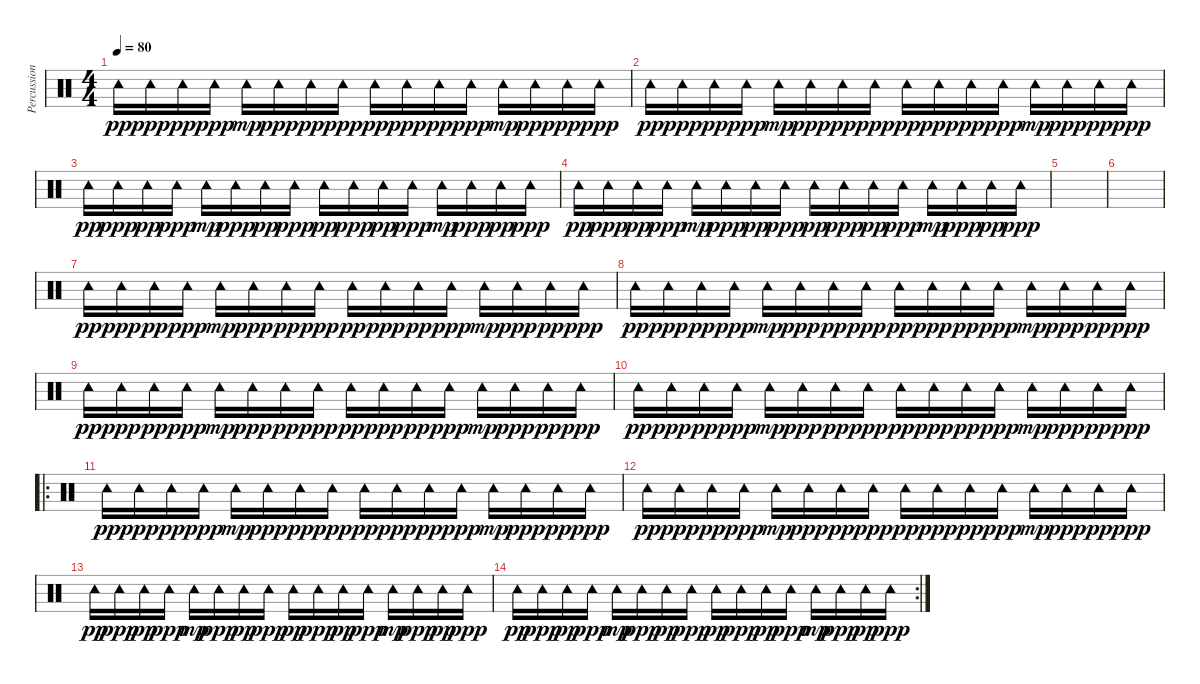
\track ("Percussion" "Percussion") {instrument percussion}
\staff {score}
\articulation defaults
\ts (4 4)
\tempo 80
\clef neutral
\ks c "Tambourine (hit)".16{dy pp} "Tambourine (hit)".16{dy ppp} "Tambourine (hit)".16{dy pp} "Tambourine (hit)".16{dy ppp} "Tambourine (hit)".16{dy mp} "Tambourine (hit)".16{dy ppp} "Tambourine (hit)".16{dy pp} "Tambourine (hit)".16{dy ppp} "Tambourine (hit)".16{dy pp} "Tambourine (hit)".16{dy ppp} "Tambourine (hit)".16{dy pp} "Tambourine (hit)".16{dy ppp} "Tambourine (hit)".16{dy mp} "Tambourine (hit)".16{dy ppp} "Tambourine (hit)".16{dy pp} "Tambourine (hit)".16{dy ppp}
|
"Tambourine (hit)".16{dy pp} "Tambourine (hit)".16{dy ppp} "Tambourine (hit)".16{dy pp} "Tambourine (hit)".16{dy ppp} "Tambourine (hit)".16{dy mp} "Tambourine (hit)".16{dy ppp} "Tambourine (hit)".16{dy pp} "Tambourine (hit)".16{dy ppp} "Tambourine (hit)".16{dy pp} "Tambourine (hit)".16{dy ppp} "Tambourine (hit)".16{dy pp} "Tambourine (hit)".16{dy ppp} "Tambourine (hit)".16{dy mp} "Tambourine (hit)".16{dy ppp} "Tambourine (hit)".16{dy pp} "Tambourine (hit)".16{dy ppp} |
"Tambourine (hit)".16{dy pp} "Tambourine (hit)".16{dy ppp} "Tambourine (hit)".16{dy pp} "Tambourine (hit)".16{dy ppp} "Tambourine (hit)".16{dy mp} "Tambourine (hit)".16{dy ppp} "Tambourine (hit)".16{dy pp} "Tambourine (hit)".16{dy ppp} "Tambourine (hit)".16{dy pp} "Tambourine (hit)".16{dy ppp} "Tambourine (hit)".16{dy pp} "Tambourine (hit)".16{dy ppp} "Tambourine (hit)".16{dy mp} "Tambourine (hit)".16{dy ppp} "Tambourine (hit)".16{dy pp} "Tambourine (hit)".16{dy ppp} |
"Tambourine (hit)".16{dy pp} "Tambourine (hit)".16{dy ppp} "Tambourine (hit)".16{dy pp} "Tambourine (hit)".16{dy ppp} "Tambourine (hit)".16{dy mp} "Tambourine (hit)".16{dy ppp} "Tambourine (hit)".16{dy pp} "Tambourine (hit)".16{dy ppp} "Tambourine (hit)".16{dy pp} "Tambourine (hit)".16{dy ppp} "Tambourine (hit)".16{dy pp} "Tambourine (hit)".16{dy ppp} "Tambourine (hit)".16{dy mp} "Tambourine (hit)".16{dy ppp} "Tambourine (hit)".16{dy pp} "Tambourine (hit)".16{dy ppp} |
|
|
"Tambourine (hit)".16{dy pp} "Tambourine (hit)".16{dy ppp} "Tambourine (hit)".16{dy pp} "Tambourine (hit)".16{dy ppp} "Tambourine (hit)".16{dy mp} "Tambourine (hit)".16{dy ppp} "Tambourine (hit)".16{dy pp} "Tambourine (hit)".16{dy ppp} "Tambourine (hit)".16{dy pp} "Tambourine (hit)".16{dy ppp} "Tambourine (hit)".16{dy pp} "Tambourine (hit)".16{dy ppp} "Tambourine (hit)".16{dy mp} "Tambourine (hit)".16{dy ppp} "Tambourine (hit)".16{dy pp} "Tambourine (hit)".16{dy ppp} |
"Tambourine (hit)".16{dy pp} "Tambourine (hit)".16{dy ppp} "Tambourine (hit)".16{dy pp} "Tambourine (hit)".16{dy ppp} "Tambourine (hit)".16{dy mp} "Tambourine (hit)".16{dy ppp} "Tambourine (hit)".16{dy pp} "Tambourine (hit)".16{dy ppp} "Tambourine (hit)".16{dy pp} "Tambourine (hit)".16{dy ppp} "Tambourine (hit)".16{dy pp} "Tambourine (hit)".16{dy ppp} "Tambourine (hit)".16{dy mp} "Tambourine (hit)".16{dy ppp} "Tambourine (hit)".16{dy pp} "Tambourine (hit)".16{dy ppp} |
"Tambourine (hit)".16{dy pp} "Tambourine (hit)".16{dy ppp} "Tambourine (hit)".16{dy pp} "Tambourine (hit)".16{dy ppp} "Tambourine (hit)".16{dy mp} "Tambourine (hit)".16{dy ppp} "Tambourine (hit)".16{dy pp} "Tambourine (hit)".16{dy ppp} "Tambourine (hit)".16{dy pp} "Tambourine (hit)".16{dy ppp} "Tambourine (hit)".16{dy pp} "Tambourine (hit)".16{dy ppp} "Tambourine (hit)".16{dy mp} "Tambourine (hit)".16{dy ppp} "Tambourine (hit)".16{dy pp} "Tambourine (hit)".16{dy ppp} |
"Tambourine (hit)".16{dy pp} "Tambourine (hit)".16{dy ppp} "Tambourine (hit)".16{dy pp} "Tambourine (hit)".16{dy ppp} "Tambourine (hit)".16{dy mp} "Tambourine (hit)".16{dy ppp} "Tambourine (hit)".16{dy pp} "Tambourine (hit)".16{dy ppp} "Tambourine (hit)".16{dy pp} "Tambourine (hit)".16{dy ppp} "Tambourine (hit)".16{dy pp} "Tambourine (hit)".16{dy ppp} "Tambourine (hit)".16{dy mp} "Tambourine (hit)".16{dy ppp} "Tambourine (hit)".16{dy pp} "Tambourine (hit)".16{dy ppp} |
\ro "Tambourine (hit)".16{dy pp} "Tambourine (hit)".16{dy ppp} "Tambourine (hit)".16{dy pp} "Tambourine (hit)".16{dy ppp} "Tambourine (hit)".16{dy mp} "Tambourine (hit)".16{dy ppp} "Tambourine (hit)".16{dy pp} "Tambourine (hit)".16{dy ppp} "Tambourine (hit)".16{dy pp} "Tambourine (hit)".16{dy ppp} "Tambourine (hit)".16{dy pp} "Tambourine (hit)".16{dy ppp} "Tambourine (hit)".16{dy mp} "Tambourine (hit)".16{dy ppp} "Tambourine (hit)".16{dy pp} "Tambourine (hit)".16{dy ppp}
|
"Tambourine (hit)".16{dy pp} "Tambourine (hit)".16{dy ppp} "Tambourine (hit)".16{dy pp} "Tambourine (hit)".16{dy ppp} "Tambourine (hit)".16{dy mp} "Tambourine (hit)".16{dy ppp} "Tambourine (hit)".16{dy pp} "Tambourine (hit)".16{dy ppp} "Tambourine (hit)".16{dy pp} "Tambourine (hit)".16{dy ppp} "Tambourine (hit)".16{dy pp} "Tambourine (hit)".16{dy ppp} "Tambourine (hit)".16{dy mp} "Tambourine (hit)".16{dy ppp} "Tambourine (hit)".16{dy pp} "Tambourine (hit)".16{dy ppp} |
"Tambourine (hit)".16{dy pp} "Tambourine (hit)".16{dy ppp} "Tambourine (hit)".16{dy pp} "Tambourine (hit)".16{dy ppp} "Tambourine (hit)".16{dy mp} "Tambourine (hit)".16{dy ppp} "Tambourine (hit)".16{dy pp} "Tambourine (hit)".16{dy ppp} "Tambourine (hit)".16{dy pp} "Tambourine (hit)".16{dy ppp} "Tambourine (hit)".16{dy pp} "Tambourine (hit)".16{dy ppp} "Tambourine (hit)".16{dy mp} "Tambourine (hit)".16{dy ppp} "Tambourine (hit)".16{dy pp} "Tambourine (hit)".16{dy ppp} |
\rc 2 "Tambourine (hit)".16{dy pp} "Tambourine (hit)".16{dy ppp} "Tambourine (hit)".16{dy pp} "Tambourine (hit)".16{dy ppp} "Tambourine (hit)".16{dy mp} "Tambourine (hit)".16{dy ppp} "Tambourine (hit)".16{dy pp} "Tambourine (hit)".16{dy ppp} "Tambourine (hit)".16{dy pp} "Tambourine (hit)".16{dy ppp} "Tambourine (hit)".16{dy pp} "Tambourine (hit)".16{dy ppp} "Tambourine (hit)".16{dy mp} "Tambourine (hit)".16{dy ppp} "Tambourine (hit)".16{dy pp} "Tambourine (hit)".16{dy ppp}
